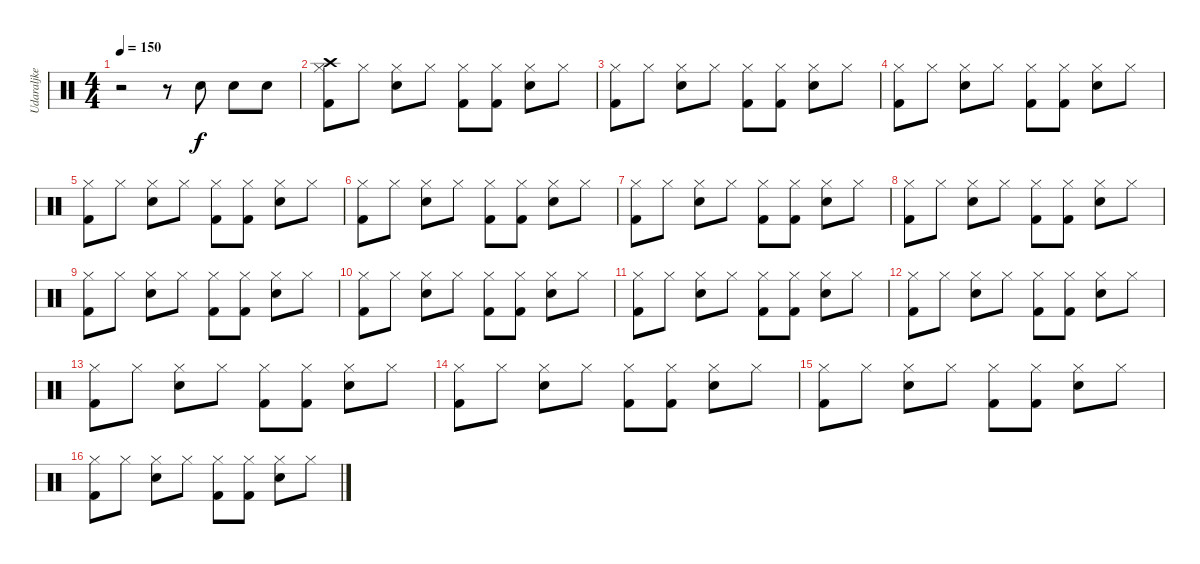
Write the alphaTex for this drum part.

\track ("Udaraljke" "Udaraljke") {instrument percussion}
\staff {score}
\articulation defaults
\ts (4 4)
\tempo 150
\clef neutral
\ks c
r.2{dy f} r.8 "Snare (hit) 2".8 "Snare (hit) 2".8 "Snare (hit) 2".8 |
("Crash high (hit)" "Kick (hit) 2" "Hi-Hat (closed)").8 "Hi-Hat (closed)".8 ("Snare (hit) 2" "Hi-Hat (closed)").8 "Hi-Hat (closed)".8 ("Kick (hit) 2" "Hi-Hat (closed)").8 ("Kick (hit) 2" "Hi-Hat (closed)").8 ("Snare (hit) 2" "Hi-Hat (closed)").8 "Hi-Hat (closed)".8 |
("Hi-Hat (closed)" "Kick (hit) 2").8 "Hi-Hat (closed)".8 ("Hi-Hat (closed)" "Snare (hit) 2").8 "Hi-Hat (closed)".8 ("Hi-Hat (closed)" "Kick (hit) 2").8 ("Hi-Hat (closed)" "Kick (hit) 2").8 ("Hi-Hat (closed)" "Snare (hit) 2").8 "Hi-Hat (closed)".8 |
("Hi-Hat (closed)" "Kick (hit) 2").8 "Hi-Hat (closed)".8 ("Hi-Hat (closed)" "Snare (hit) 2").8 "Hi-Hat (closed)".8 ("Hi-Hat (closed)" "Kick (hit) 2").8 ("Hi-Hat (closed)" "Kick (hit) 2").8 ("Hi-Hat (closed)" "Snare (hit) 2").8 "Hi-Hat (closed)".8 |
("Hi-Hat (closed)" "Kick (hit) 2").8 "Hi-Hat (closed)".8 ("Hi-Hat (closed)" "Snare (hit) 2").8 "Hi-Hat (closed)".8 ("Hi-Hat (closed)" "Kick (hit) 2").8 ("Hi-Hat (closed)" "Kick (hit) 2").8 ("Hi-Hat (closed)" "Snare (hit) 2").8 "Hi-Hat (closed)".8 |
("Hi-Hat (closed)" "Kick (hit) 2").8 "Hi-Hat (closed)".8 ("Hi-Hat (closed)" "Snare (hit) 2").8 "Hi-Hat (closed)".8 ("Hi-Hat (closed)" "Kick (hit) 2").8 ("Hi-Hat (closed)" "Kick (hit) 2").8 ("Hi-Hat (closed)" "Snare (hit) 2").8 "Hi-Hat (closed)".8 |
("Hi-Hat (closed)" "Kick (hit) 2").8 "Hi-Hat (closed)".8 ("Hi-Hat (closed)" "Snare (hit) 2").8 "Hi-Hat (closed)".8 ("Hi-Hat (closed)" "Kick (hit) 2").8 ("Hi-Hat (closed)" "Kick (hit) 2").8 ("Hi-Hat (closed)" "Snare (hit) 2").8 "Hi-Hat (closed)".8 |
("Hi-Hat (closed)" "Kick (hit) 2").8 "Hi-Hat (closed)".8 ("Hi-Hat (closed)" "Snare (hit) 2").8 "Hi-Hat (closed)".8 ("Hi-Hat (closed)" "Kick (hit) 2").8 ("Hi-Hat (closed)" "Kick (hit) 2").8 ("Hi-Hat (closed)" "Snare (hit) 2").8 "Hi-Hat (closed)".8 |
("Hi-Hat (closed)" "Kick (hit) 2").8 "Hi-Hat (closed)".8 ("Hi-Hat (closed)" "Snare (hit) 2").8 "Hi-Hat (closed)".8 ("Hi-Hat (closed)" "Kick (hit) 2").8 ("Hi-Hat (closed)" "Kick (hit) 2").8 ("Hi-Hat (closed)" "Snare (hit) 2").8 "Hi-Hat (closed)".8 |
("Hi-Hat (closed)" "Kick (hit) 2").8 "Hi-Hat (closed)".8 ("Hi-Hat (closed)" "Snare (hit) 2").8 "Hi-Hat (closed)".8 ("Hi-Hat (closed)" "Kick (hit) 2").8 ("Hi-Hat (closed)" "Kick (hit) 2").8 ("Hi-Hat (closed)" "Snare (hit) 2").8 "Hi-Hat (closed)".8 |
("Hi-Hat (closed)" "Kick (hit) 2").8 "Hi-Hat (closed)".8 ("Hi-Hat (closed)" "Snare (hit) 2").8 "Hi-Hat (closed)".8 ("Hi-Hat (closed)" "Kick (hit) 2").8 ("Hi-Hat (closed)" "Kick (hit) 2").8 ("Hi-Hat (closed)" "Snare (hit) 2").8 "Hi-Hat (closed)".8 |
("Hi-Hat (closed)" "Kick (hit) 2").8 "Hi-Hat (closed)".8 ("Hi-Hat (closed)" "Snare (hit) 2").8 "Hi-Hat (closed)".8 ("Hi-Hat (closed)" "Kick (hit) 2").8 ("Hi-Hat (closed)" "Kick (hit) 2").8 ("Hi-Hat (closed)" "Snare (hit) 2").8 "Hi-Hat (closed)".8 |
("Hi-Hat (closed)" "Kick (hit) 2").8 "Hi-Hat (closed)".8 ("Hi-Hat (closed)" "Snare (hit) 2").8 "Hi-Hat (closed)".8 ("Hi-Hat (closed)" "Kick (hit) 2").8 ("Hi-Hat (closed)" "Kick (hit) 2").8 ("Hi-Hat (closed)" "Snare (hit) 2").8 "Hi-Hat (closed)".8 |
("Hi-Hat (closed)" "Kick (hit) 2").8 "Hi-Hat (closed)".8 ("Hi-Hat (closed)" "Snare (hit) 2").8 "Hi-Hat (closed)".8 ("Hi-Hat (closed)" "Kick (hit) 2").8 ("Hi-Hat (closed)" "Kick (hit) 2").8 ("Hi-Hat (closed)" "Snare (hit) 2").8 "Hi-Hat (closed)".8 |
("Hi-Hat (closed)" "Kick (hit) 2").8 "Hi-Hat (closed)".8 ("Hi-Hat (closed)" "Snare (hit) 2").8 "Hi-Hat (closed)".8 ("Hi-Hat (closed)" "Kick (hit) 2").8 ("Hi-Hat (closed)" "Kick (hit) 2").8 ("Hi-Hat (closed)" "Snare (hit) 2").8 "Hi-Hat (closed)".8 |
("Hi-Hat (closed)" "Kick (hit) 2").8 "Hi-Hat (closed)".8 ("Hi-Hat (closed)" "Snare (hit) 2").8 "Hi-Hat (closed)".8 ("Hi-Hat (closed)" "Kick (hit) 2").8 ("Hi-Hat (closed)" "Kick (hit) 2").8 ("Hi-Hat (closed)" "Snare (hit) 2").8 "Hi-Hat (closed)".8
